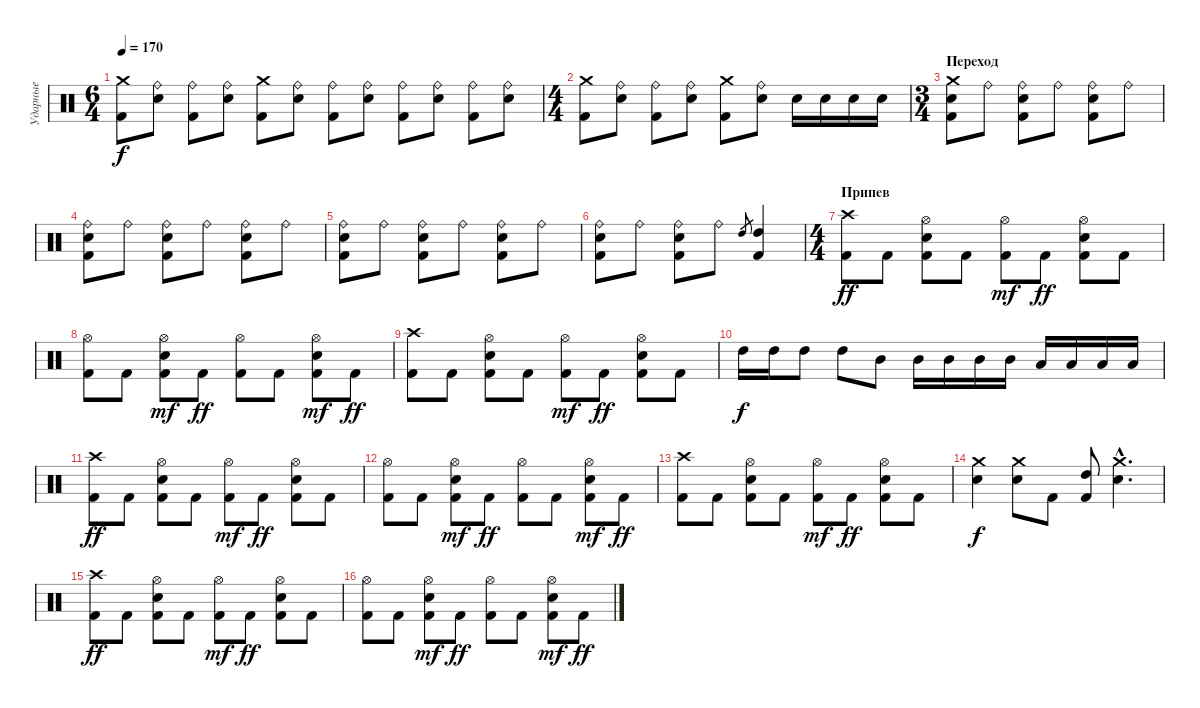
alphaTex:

\track ("Ударные" "Ударные") {instrument percussion}
\staff {score}
\articulation defaults
\ts (6 4)
\tempo 170
\clef neutral
\ks c
("Crash medium (hit)" "Kick (hit) 2").8{dy f} ("Ride (bell)" "Electric Snare (hit)").8 ("Ride (bell)" "Kick (hit) 2").8 ("Ride (bell)" "Electric Snare (hit)").8 ("Crash medium (hit)" "Kick (hit) 2").8 ("Ride (bell)" "Electric Snare (hit)").8 ("Ride (bell)" "Kick (hit) 2").8 ("Ride (bell)" "Electric Snare (hit)").8 ("Ride (bell)" "Kick (hit) 2").8 ("Ride (bell)" "Electric Snare (hit)").8 ("Ride (bell)" "Kick (hit) 2").8 ("Ride (bell)" "Electric Snare (hit)").8 |
\ts (4 4)
("Crash medium (hit)" "Kick (hit) 2").8 ("Ride (bell)" "Electric Snare (hit)").8 ("Ride (bell)" "Kick (hit) 2").8 ("Ride (bell)" "Electric Snare (hit)").8 ("Crash medium (hit)" "Kick (hit) 2").8 ("Ride (bell)" "Electric Snare (hit)").8 "Electric Snare (hit)".16 "Electric Snare (hit)".16 "Electric Snare (hit)".16 "Electric Snare (hit)".16 |
\ts (3 4)
\section ("" "Переход")
("Crash medium (hit)" "Kick (hit) 2" "Electric Snare (hit)").8 "Ride (bell)".8 ("Ride (bell)" "Kick (hit) 2" "Electric Snare (hit)").8 "Ride (bell)".8 ("Ride (bell)" "Kick (hit) 2" "Electric Snare (hit)").8 "Ride (bell)".8 |
("Ride (bell)" "Kick (hit) 2" "Electric Snare (hit)").8 "Ride (bell)".8 ("Ride (bell)" "Kick (hit) 2" "Electric Snare (hit)").8 "Ride (bell)".8 ("Ride (bell)" "Kick (hit) 2" "Electric Snare (hit)").8 "Ride (bell)".8 |
("Ride (bell)" "Kick (hit) 2" "Electric Snare (hit)").8 "Ride (bell)".8 ("Ride (bell)" "Kick (hit) 2" "Electric Snare (hit)").8 "Ride (bell)".8 ("Ride (bell)" "Kick (hit) 2" "Electric Snare (hit)").8 "Ride (bell)".8 |
("Ride (bell)" "Kick (hit) 2" "Electric Snare (hit)").8 "Ride (bell)".8 ("Ride (bell)" "Kick (hit) 2" "Electric Snare (hit)").8 "Ride (bell)".8 "High Tom (hit)".8{gr} ("Kick (hit) 2" "High Tom (hit)").4 |
\ts (4 4)
\section ("" "Припев")
("Crash high (hit)" "Kick (hit) 2").8{dy ff} "Kick (hit) 2".8 ("Hi-Hat (open)" "Kick (hit) 2" "Electric Snare (hit)").8 "Kick (hit) 2".8 ("Kick (hit) 2" "Hi-Hat (open)").8{dy mf} "Kick (hit) 2".8{dy ff} ("Kick (hit) 2" "Hi-Hat (open)" "Electric Snare (hit)").8 "Kick (hit) 2".8 |
("Hi-Hat (open)" "Kick (hit) 2").8 "Kick (hit) 2".8 ("Kick (hit) 2" "Electric Snare (hit)" "Hi-Hat (open)").8{dy mf} "Kick (hit) 2".8{dy ff} ("Hi-Hat (open)" "Kick (hit) 2").8 "Kick (hit) 2".8 ("Kick (hit) 2" "Electric Snare (hit)" "Hi-Hat (open)").8{dy mf} "Kick (hit) 2".8{dy ff} |
("Crash high (hit)" "Kick (hit) 2").8 "Kick (hit) 2".8 ("Hi-Hat (open)" "Kick (hit) 2" "Electric Snare (hit)").8 "Kick (hit) 2".8 ("Kick (hit) 2" "Hi-Hat (open)").8{dy mf} "Kick (hit) 2".8{dy ff} ("Kick (hit) 2" "Hi-Hat (open)" "Electric Snare (hit)").8 "Kick (hit) 2".8 |
"High Tom (hit)".16{dy f} "High Tom (hit)".16 "High Tom (hit)".8 "High Tom (hit)".8 "Mid Tom (hit)".8 "Mid Tom (hit)".16 "Mid Tom (hit)".16 "Mid Tom (hit)".16 "Mid Tom (hit)".16 "Low Tom (hit)".16 "Low Tom (hit)".16 "Low Tom (hit)".16 "Low Tom (hit)".16 |
("Crash high (hit)" "Kick (hit) 2").8{dy ff} "Kick (hit) 2".8 ("Hi-Hat (open)" "Kick (hit) 2" "Electric Snare (hit)").8 "Kick (hit) 2".8 ("Kick (hit) 2" "Hi-Hat (open)").8{dy mf} "Kick (hit) 2".8{dy ff} ("Kick (hit) 2" "Hi-Hat (open)" "Electric Snare (hit)").8 "Kick (hit) 2".8 |
("Hi-Hat (open)" "Kick (hit) 2").8 "Kick (hit) 2".8 ("Kick (hit) 2" "Electric Snare (hit)" "Hi-Hat (open)").8{dy mf} "Kick (hit) 2".8{dy ff} ("Hi-Hat (open)" "Kick (hit) 2").8 "Kick (hit) 2".8 ("Kick (hit) 2" "Electric Snare (hit)" "Hi-Hat (open)").8{dy mf} "Kick (hit) 2".8{dy ff} |
("Crash high (hit)" "Kick (hit) 2").8 "Kick (hit) 2".8 ("Hi-Hat (open)" "Kick (hit) 2" "Electric Snare (hit)").8 "Kick (hit) 2".8 ("Kick (hit) 2" "Hi-Hat (open)").8{dy mf} "Kick (hit) 2".8{dy ff} ("Kick (hit) 2" "Hi-Hat (open)" "Electric Snare (hit)").8 "Kick (hit) 2".8 |
("Electric Snare (hit)" "Crash medium (hit)").4{dy f} ("Electric Snare (hit)" "Crash medium (hit)").8 "Kick (hit) 2".8 ("High Tom (hit)" "Kick (hit) 2").8 ("Electric Snare (hit)"{hac} "Crash medium (hit)"{hac}).4{d} |
("Crash high (hit)" "Kick (hit) 2").8{dy ff} "Kick (hit) 2".8 ("Hi-Hat (open)" "Kick (hit) 2" "Electric Snare (hit)").8 "Kick (hit) 2".8 ("Kick (hit) 2" "Hi-Hat (open)").8{dy mf} "Kick (hit) 2".8{dy ff} ("Kick (hit) 2" "Hi-Hat (open)" "Electric Snare (hit)").8 "Kick (hit) 2".8 |
("Hi-Hat (open)" "Kick (hit) 2").8 "Kick (hit) 2".8 ("Kick (hit) 2" "Electric Snare (hit)" "Hi-Hat (open)").8{dy mf} "Kick (hit) 2".8{dy ff} ("Hi-Hat (open)" "Kick (hit) 2").8 "Kick (hit) 2".8 ("Kick (hit) 2" "Electric Snare (hit)" "Hi-Hat (open)").8{dy mf} "Kick (hit) 2".8{dy ff}
